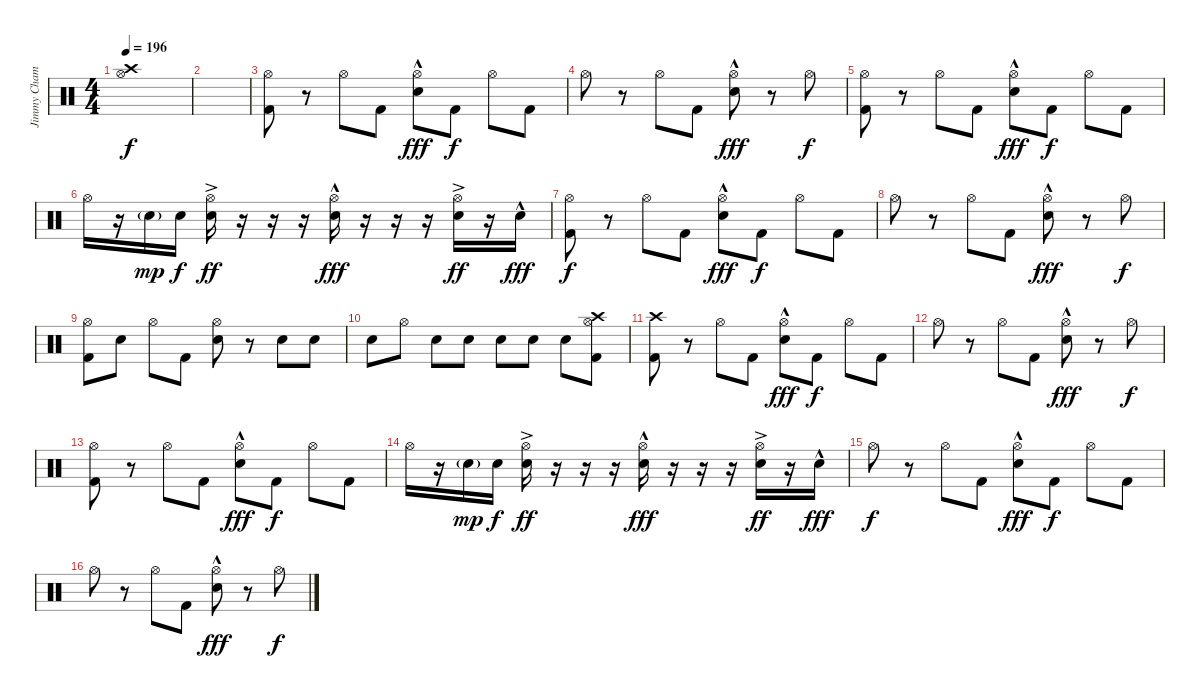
\track ("Jimmy Chamberlin" "Jimmy Cham") {instrument percussion}
\staff {score}
\articulation defaults
\ts (4 4)
\tempo 196
\clef neutral
\ks c
("Crash high (hit)" "Hi-Hat (open)").1{dy f} |
|
("Hi-Hat (open)" "Kick (hit) 2").8 r.8 "Hi-Hat (open)".8 "Kick (hit) 2".8 ("Hi-Hat (open)" "Electric Snare (hit)"{hac}).8{dy fff} "Kick (hit) 2".8{dy f} "Hi-Hat (open)".8 "Kick (hit) 2".8 |
"Hi-Hat (open)".8 r.8 "Hi-Hat (open)".8 "Kick (hit) 2".8 ("Hi-Hat (open)" "Electric Snare (hit)"{hac}).8{dy fff} r.8 "Hi-Hat (open)".8{dy f} |
("Hi-Hat (open)" "Kick (hit) 2").8 r.8 "Hi-Hat (open)".8 "Kick (hit) 2".8 ("Hi-Hat (open)" "Electric Snare (hit)"{hac}).8{dy fff} "Kick (hit) 2".8{dy f} "Hi-Hat (open)".8 "Kick (hit) 2".8 |
"Hi-Hat (open)".16 r.16 "Electric Snare (hit)"{g}.16{dy mp} "Electric Snare (hit)".16{dy f} ("Hi-Hat (open)" "Electric Snare (hit)"{ac}).16{dy ff} r.16 r.16 r.16 ("Hi-Hat (open)" "Electric Snare (hit)"{hac}).16{dy fff} r.16 r.16 r.16 ("Hi-Hat (open)" "Electric Snare (hit)"{ac}).16{dy ff} r.16 "Electric Snare (hit)"{hac}.16{dy fff} |
("Hi-Hat (open)" "Kick (hit) 2").8{dy f} r.8 "Hi-Hat (open)".8 "Kick (hit) 2".8 ("Hi-Hat (open)" "Electric Snare (hit)"{hac}).8{dy fff} "Kick (hit) 2".8{dy f} "Hi-Hat (open)".8 "Kick (hit) 2".8 |
"Hi-Hat (open)".8 r.8 "Hi-Hat (open)".8 "Kick (hit) 2".8 ("Hi-Hat (open)" "Electric Snare (hit)"{hac}).8{dy fff} r.8 "Hi-Hat (open)".8{dy f} |
("Hi-Hat (open)" "Kick (hit) 2").8 "Electric Snare (hit)".8 "Hi-Hat (open)".8 "Kick (hit) 2".8 ("Hi-Hat (open)" "Electric Snare (hit)").8 r.8 "Electric Snare (hit)".8 "Electric Snare (hit)".8 |
"Electric Snare (hit)".8 "Hi-Hat (open)".8 "Electric Snare (hit)".8 "Electric Snare (hit)".8 "Electric Snare (hit)".8 "Electric Snare (hit)".8 "Electric Snare (hit)".8 ("Crash high (hit)" "Hi-Hat (open)" "Kick (hit) 2").8 |
("Crash high (hit)" "Kick (hit) 2").8 r.8 "Hi-Hat (open)".8 "Kick (hit) 2".8 ("Hi-Hat (open)" "Electric Snare (hit)"{hac}).8{dy fff} "Kick (hit) 2".8{dy f} "Hi-Hat (open)".8 "Kick (hit) 2".8 |
"Hi-Hat (open)".8 r.8 "Hi-Hat (open)".8 "Kick (hit) 2".8 ("Hi-Hat (open)" "Electric Snare (hit)"{hac}).8{dy fff} r.8 "Hi-Hat (open)".8{dy f} |
("Hi-Hat (open)" "Kick (hit) 2").8 r.8 "Hi-Hat (open)".8 "Kick (hit) 2".8 ("Hi-Hat (open)" "Electric Snare (hit)"{hac}).8{dy fff} "Kick (hit) 2".8{dy f} "Hi-Hat (open)".8 "Kick (hit) 2".8 |
"Hi-Hat (open)".16 r.16 "Electric Snare (hit)"{g}.16{dy mp} "Electric Snare (hit)".16{dy f} ("Hi-Hat (open)" "Electric Snare (hit)"{ac}).16{dy ff} r.16 r.16 r.16 ("Hi-Hat (open)" "Electric Snare (hit)"{hac}).16{dy fff} r.16 r.16 r.16 ("Hi-Hat (open)" "Electric Snare (hit)"{ac}).16{dy ff} r.16 "Electric Snare (hit)"{hac}.16{dy fff} |
"Hi-Hat (open)".8{dy f} r.8 "Hi-Hat (open)".8 "Kick (hit) 2".8 ("Hi-Hat (open)" "Electric Snare (hit)"{hac}).8{dy fff} "Kick (hit) 2".8{dy f} "Hi-Hat (open)".8 "Kick (hit) 2".8 |
"Hi-Hat (open)".8 r.8 "Hi-Hat (open)".8 "Kick (hit) 2".8 ("Hi-Hat (open)" "Electric Snare (hit)"{hac}).8{dy fff} r.8 "Hi-Hat (open)".8{dy f}
